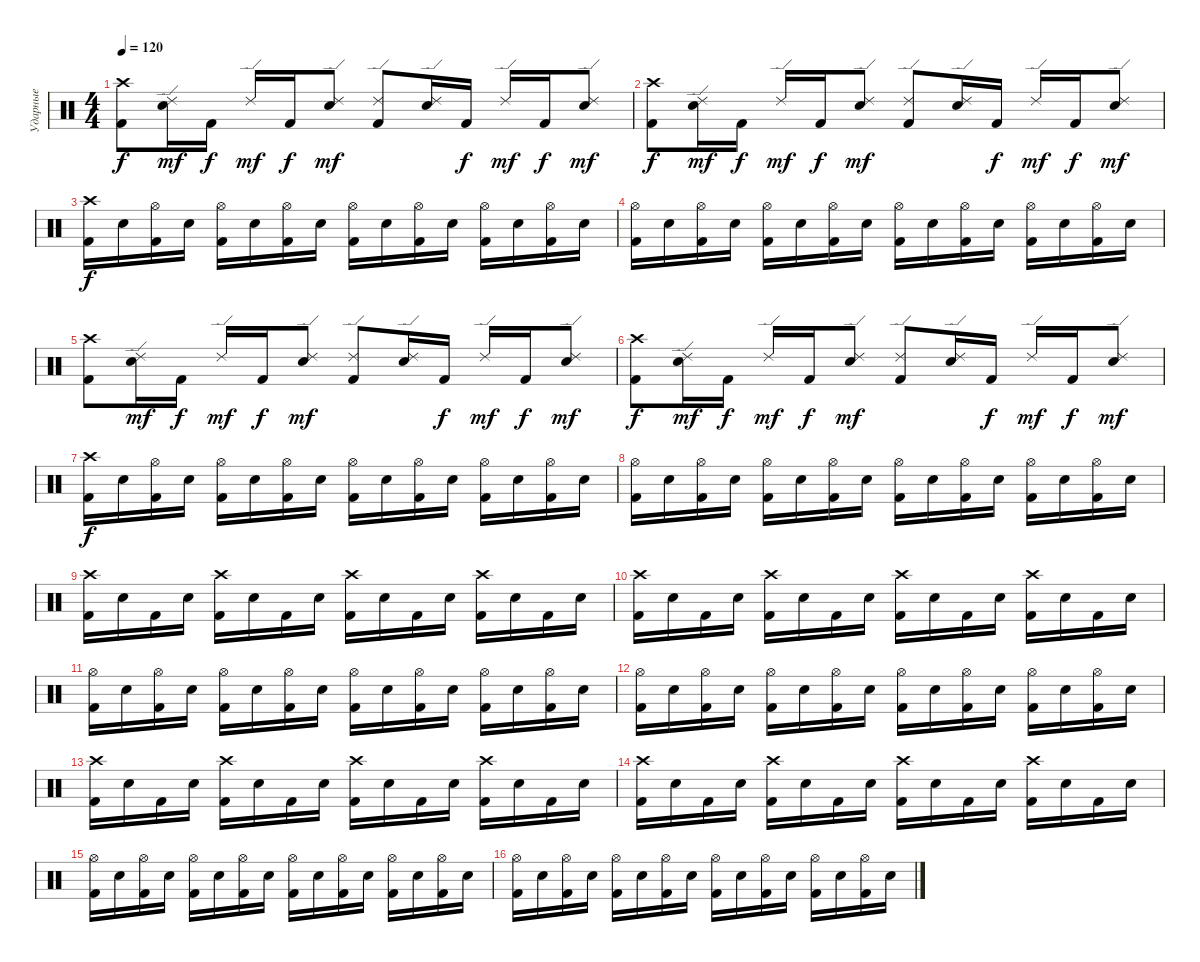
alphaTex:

\track ("Ударные" "Ударные") {instrument percussion}
\staff {score}
\articulation defaults
\ts (4 4)
\tempo 120
\clef neutral
\ks c
("Crash high (hit)" "Kick (hit) 2").8{dy f} ("Ride (edge) 2" "Electric Snare (hit)").16{dy mf} "Kick (hit) 2".16{dy f} "Ride (edge) 2".16{dy mf} "Kick (hit) 2".16{dy f} ("Ride (edge) 2" "Electric Snare (hit)").8{dy mf} ("Ride (edge) 2" "Kick (hit) 2").8 ("Ride (edge) 2" "Electric Snare (hit)").16 "Kick (hit) 2".16{dy f} "Ride (edge) 2".16{dy mf} "Kick (hit) 2".16{dy f} ("Ride (edge) 2" "Electric Snare (hit)").8{dy mf} |
("Crash high (hit)" "Kick (hit) 2").8{dy f} ("Ride (edge) 2" "Electric Snare (hit)").16{dy mf} "Kick (hit) 2".16{dy f} "Ride (edge) 2".16{dy mf} "Kick (hit) 2".16{dy f} ("Ride (edge) 2" "Electric Snare (hit)").8{dy mf} ("Ride (edge) 2" "Kick (hit) 2").8 ("Ride (edge) 2" "Electric Snare (hit)").16 "Kick (hit) 2".16{dy f} "Ride (edge) 2".16{dy mf} "Kick (hit) 2".16{dy f} ("Ride (edge) 2" "Electric Snare (hit)").8{dy mf} |
("Crash high (hit)" "Kick (hit) 2").16{dy f} "Electric Snare (hit)".16 ("Hi-Hat (open)" "Kick (hit) 2").16 "Electric Snare (hit)".16 ("Hi-Hat (open)" "Kick (hit) 2").16 "Electric Snare (hit)".16 ("Hi-Hat (open)" "Kick (hit) 2").16 "Electric Snare (hit)".16 ("Hi-Hat (open)" "Kick (hit) 2").16 "Electric Snare (hit)".16 ("Hi-Hat (open)" "Kick (hit) 2").16 "Electric Snare (hit)".16 ("Hi-Hat (open)" "Kick (hit) 2").16 "Electric Snare (hit)".16 ("Hi-Hat (open)" "Kick (hit) 2").16 "Electric Snare (hit)".16 |
("Hi-Hat (open)" "Kick (hit) 2").16 "Electric Snare (hit)".16 ("Hi-Hat (open)" "Kick (hit) 2").16 "Electric Snare (hit)".16 ("Hi-Hat (open)" "Kick (hit) 2").16 "Electric Snare (hit)".16 ("Hi-Hat (open)" "Kick (hit) 2").16 "Electric Snare (hit)".16 ("Hi-Hat (open)" "Kick (hit) 2").16 "Electric Snare (hit)".16 ("Hi-Hat (open)" "Kick (hit) 2").16 "Electric Snare (hit)".16 ("Hi-Hat (open)" "Kick (hit) 2").16 "Electric Snare (hit)".16 ("Hi-Hat (open)" "Kick (hit) 2").16 "Electric Snare (hit)".16 |
("Crash high (hit)" "Kick (hit) 2").8 ("Ride (edge) 2" "Electric Snare (hit)").16{dy mf} "Kick (hit) 2".16{dy f} "Ride (edge) 2".16{dy mf} "Kick (hit) 2".16{dy f} ("Ride (edge) 2" "Electric Snare (hit)").8{dy mf} ("Ride (edge) 2" "Kick (hit) 2").8 ("Ride (edge) 2" "Electric Snare (hit)").16 "Kick (hit) 2".16{dy f} "Ride (edge) 2".16{dy mf} "Kick (hit) 2".16{dy f} ("Ride (edge) 2" "Electric Snare (hit)").8{dy mf} |
("Crash high (hit)" "Kick (hit) 2").8{dy f} ("Ride (edge) 2" "Electric Snare (hit)").16{dy mf} "Kick (hit) 2".16{dy f} "Ride (edge) 2".16{dy mf} "Kick (hit) 2".16{dy f} ("Ride (edge) 2" "Electric Snare (hit)").8{dy mf} ("Ride (edge) 2" "Kick (hit) 2").8 ("Ride (edge) 2" "Electric Snare (hit)").16 "Kick (hit) 2".16{dy f} "Ride (edge) 2".16{dy mf} "Kick (hit) 2".16{dy f} ("Ride (edge) 2" "Electric Snare (hit)").8{dy mf} |
("Crash high (hit)" "Kick (hit) 2").16{dy f} "Electric Snare (hit)".16 ("Hi-Hat (open)" "Kick (hit) 2").16 "Electric Snare (hit)".16 ("Hi-Hat (open)" "Kick (hit) 2").16 "Electric Snare (hit)".16 ("Hi-Hat (open)" "Kick (hit) 2").16 "Electric Snare (hit)".16 ("Hi-Hat (open)" "Kick (hit) 2").16 "Electric Snare (hit)".16 ("Hi-Hat (open)" "Kick (hit) 2").16 "Electric Snare (hit)".16 ("Hi-Hat (open)" "Kick (hit) 2").16 "Electric Snare (hit)".16 ("Hi-Hat (open)" "Kick (hit) 2").16 "Electric Snare (hit)".16 |
("Hi-Hat (open)" "Kick (hit) 2").16 "Electric Snare (hit)".16 ("Hi-Hat (open)" "Kick (hit) 2").16 "Electric Snare (hit)".16 ("Hi-Hat (open)" "Kick (hit) 2").16 "Electric Snare (hit)".16 ("Hi-Hat (open)" "Kick (hit) 2").16 "Electric Snare (hit)".16 ("Hi-Hat (open)" "Kick (hit) 2").16 "Electric Snare (hit)".16 ("Hi-Hat (open)" "Kick (hit) 2").16 "Electric Snare (hit)".16 ("Hi-Hat (open)" "Kick (hit) 2").16 "Electric Snare (hit)".16 ("Hi-Hat (open)" "Kick (hit) 2").16 "Electric Snare (hit)".16 |
("Crash high (hit)" "Kick (hit) 2").16 "Electric Snare (hit)".16 "Kick (hit) 2".16 "Electric Snare (hit)".16 ("Crash high (hit)" "Kick (hit) 2").16 "Electric Snare (hit)".16 "Kick (hit) 2".16 "Electric Snare (hit)".16 ("Crash high (hit)" "Kick (hit) 2").16 "Electric Snare (hit)".16 "Kick (hit) 2".16 "Electric Snare (hit)".16 ("Crash high (hit)" "Kick (hit) 2").16 "Electric Snare (hit)".16 "Kick (hit) 2".16 "Electric Snare (hit)".16 |
("Crash high (hit)" "Kick (hit) 2").16 "Electric Snare (hit)".16 "Kick (hit) 2".16 "Electric Snare (hit)".16 ("Crash high (hit)" "Kick (hit) 2").16 "Electric Snare (hit)".16 "Kick (hit) 2".16 "Electric Snare (hit)".16 ("Crash high (hit)" "Kick (hit) 2").16 "Electric Snare (hit)".16 "Kick (hit) 2".16 "Electric Snare (hit)".16 ("Crash high (hit)" "Kick (hit) 2").16 "Electric Snare (hit)".16 "Kick (hit) 2".16 "Electric Snare (hit)".16 |
("Hi-Hat (open)" "Kick (hit) 2").16 "Electric Snare (hit)".16 ("Hi-Hat (open)" "Kick (hit) 2").16 "Electric Snare (hit)".16 ("Hi-Hat (open)" "Kick (hit) 2").16 "Electric Snare (hit)".16 ("Hi-Hat (open)" "Kick (hit) 2").16 "Electric Snare (hit)".16 ("Hi-Hat (open)" "Kick (hit) 2").16 "Electric Snare (hit)".16 ("Hi-Hat (open)" "Kick (hit) 2").16 "Electric Snare (hit)".16 ("Hi-Hat (open)" "Kick (hit) 2").16 "Electric Snare (hit)".16 ("Hi-Hat (open)" "Kick (hit) 2").16 "Electric Snare (hit)".16 |
("Hi-Hat (open)" "Kick (hit) 2").16 "Electric Snare (hit)".16 ("Hi-Hat (open)" "Kick (hit) 2").16 "Electric Snare (hit)".16 ("Hi-Hat (open)" "Kick (hit) 2").16 "Electric Snare (hit)".16 ("Hi-Hat (open)" "Kick (hit) 2").16 "Electric Snare (hit)".16 ("Hi-Hat (open)" "Kick (hit) 2").16 "Electric Snare (hit)".16 ("Hi-Hat (open)" "Kick (hit) 2").16 "Electric Snare (hit)".16 ("Hi-Hat (open)" "Kick (hit) 2").16 "Electric Snare (hit)".16 ("Hi-Hat (open)" "Kick (hit) 2").16 "Electric Snare (hit)".16 |
("Crash high (hit)" "Kick (hit) 2").16 "Electric Snare (hit)".16 "Kick (hit) 2".16 "Electric Snare (hit)".16 ("Crash high (hit)" "Kick (hit) 2").16 "Electric Snare (hit)".16 "Kick (hit) 2".16 "Electric Snare (hit)".16 ("Crash high (hit)" "Kick (hit) 2").16 "Electric Snare (hit)".16 "Kick (hit) 2".16 "Electric Snare (hit)".16 ("Crash high (hit)" "Kick (hit) 2").16 "Electric Snare (hit)".16 "Kick (hit) 2".16 "Electric Snare (hit)".16 |
("Crash high (hit)" "Kick (hit) 2").16 "Electric Snare (hit)".16 "Kick (hit) 2".16 "Electric Snare (hit)".16 ("Crash high (hit)" "Kick (hit) 2").16 "Electric Snare (hit)".16 "Kick (hit) 2".16 "Electric Snare (hit)".16 ("Crash high (hit)" "Kick (hit) 2").16 "Electric Snare (hit)".16 "Kick (hit) 2".16 "Electric Snare (hit)".16 ("Crash high (hit)" "Kick (hit) 2").16 "Electric Snare (hit)".16 "Kick (hit) 2".16 "Electric Snare (hit)".16 |
("Hi-Hat (open)" "Kick (hit) 2").16 "Electric Snare (hit)".16 ("Hi-Hat (open)" "Kick (hit) 2").16 "Electric Snare (hit)".16 ("Hi-Hat (open)" "Kick (hit) 2").16 "Electric Snare (hit)".16 ("Hi-Hat (open)" "Kick (hit) 2").16 "Electric Snare (hit)".16 ("Hi-Hat (open)" "Kick (hit) 2").16 "Electric Snare (hit)".16 ("Hi-Hat (open)" "Kick (hit) 2").16 "Electric Snare (hit)".16 ("Hi-Hat (open)" "Kick (hit) 2").16 "Electric Snare (hit)".16 ("Hi-Hat (open)" "Kick (hit) 2").16 "Electric Snare (hit)".16 |
("Hi-Hat (open)" "Kick (hit) 2").16 "Electric Snare (hit)".16 ("Hi-Hat (open)" "Kick (hit) 2").16 "Electric Snare (hit)".16 ("Hi-Hat (open)" "Kick (hit) 2").16 "Electric Snare (hit)".16 ("Hi-Hat (open)" "Kick (hit) 2").16 "Electric Snare (hit)".16 ("Hi-Hat (open)" "Kick (hit) 2").16 "Electric Snare (hit)".16 ("Hi-Hat (open)" "Kick (hit) 2").16 "Electric Snare (hit)".16 ("Hi-Hat (open)" "Kick (hit) 2").16 "Electric Snare (hit)".16 ("Hi-Hat (open)" "Kick (hit) 2").16 "Electric Snare (hit)".16
